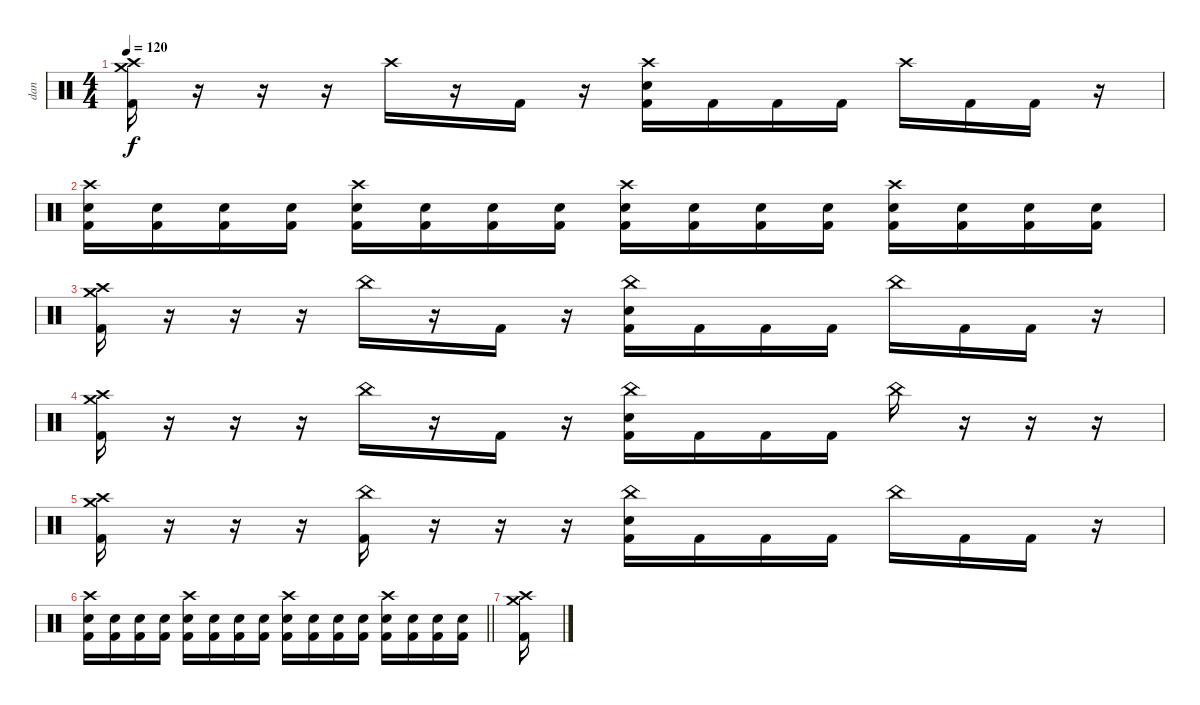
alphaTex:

\track ("dan" "dan") {instrument percussion}
\staff {score}
\articulation defaults
\ts (4 4)
\tempo 120
\clef neutral
\ks c
("Crash high (hit)" "Crash medium (hit)" "Kick (hit) 2").16{dy f} r.16 r.16 r.16 "Crash high (hit)".16 r.16 "Kick (hit) 2".16 r.16 ("Crash high (hit)" "Electric Snare (hit)" "Kick (hit) 2").16 "Kick (hit) 2".16 "Kick (hit) 2".16 "Kick (hit) 2".16 "Crash high (hit)".16 "Kick (hit) 2".16 "Kick (hit) 2".16 r.16 |
("Crash high (hit)" "Electric Snare (hit)" "Kick (hit) 2").16 ("Electric Snare (hit)" "Kick (hit) 2").16 ("Electric Snare (hit)" "Kick (hit) 2").16 ("Electric Snare (hit)" "Kick (hit) 2").16 ("Crash high (hit)" "Electric Snare (hit)" "Kick (hit) 2").16 ("Electric Snare (hit)" "Kick (hit) 2").16 ("Electric Snare (hit)" "Kick (hit) 2").16 ("Electric Snare (hit)" "Kick (hit) 2").16 ("Crash high (hit)" "Electric Snare (hit)" "Kick (hit) 2").16 ("Electric Snare (hit)" "Kick (hit) 2").16 ("Electric Snare (hit)" "Kick (hit) 2").16 ("Electric Snare (hit)" "Kick (hit) 2").16 ("Crash high (hit)" "Electric Snare (hit)" "Kick (hit) 2").16 ("Electric Snare (hit)" "Kick (hit) 2").16 ("Electric Snare (hit)" "Kick (hit) 2").16 ("Electric Snare (hit)" "Kick (hit) 2").16 |
("Crash high (hit)" "Crash medium (hit)" "Kick (hit) 2").16 r.16 r.16 r.16 "China (hit)".16 r.16 "Kick (hit) 2".16 r.16 ("China (hit)" "Electric Snare (hit)" "Kick (hit) 2").16 "Kick (hit) 2".16 "Kick (hit) 2".16 "Kick (hit) 2".16 "China (hit)".16 "Kick (hit) 2".16 "Kick (hit) 2".16 r.16 |
("Crash high (hit)" "Crash medium (hit)" "Kick (hit) 2").16 r.16 r.16 r.16 "China (hit)".16 r.16 "Kick (hit) 2".16 r.16 ("China (hit)" "Electric Snare (hit)" "Kick (hit) 2").16 "Kick (hit) 2".16 "Kick (hit) 2".16 "Kick (hit) 2".16 "China (hit)".16 r.16 r.16 r.16 |
("Crash high (hit)" "Crash medium (hit)" "Kick (hit) 2").16 r.16 r.16 r.16 ("China (hit)" "Kick (hit) 2").16 r.16 r.16 r.16 ("China (hit)" "Electric Snare (hit)" "Kick (hit) 2").16 "Kick (hit) 2".16 "Kick (hit) 2".16 "Kick (hit) 2".16 "China (hit)".16 "Kick (hit) 2".16 "Kick (hit) 2".16 r.16 |
\barLineRight lightlight
("Crash high (hit)" "Electric Snare (hit)" "Kick (hit) 2").16 ("Electric Snare (hit)" "Kick (hit) 2").16 ("Electric Snare (hit)" "Kick (hit) 2").16 ("Electric Snare (hit)" "Kick (hit) 2").16 ("Crash high (hit)" "Electric Snare (hit)" "Kick (hit) 2").16 ("Electric Snare (hit)" "Kick (hit) 2").16 ("Electric Snare (hit)" "Kick (hit) 2").16 ("Electric Snare (hit)" "Kick (hit) 2").16 ("Crash high (hit)" "Electric Snare (hit)" "Kick (hit) 2").16 ("Electric Snare (hit)" "Kick (hit) 2").16 ("Electric Snare (hit)" "Kick (hit) 2").16 ("Electric Snare (hit)" "Kick (hit) 2").16 ("Crash high (hit)" "Electric Snare (hit)" "Kick (hit) 2").16 ("Electric Snare (hit)" "Kick (hit) 2").16 ("Electric Snare (hit)" "Kick (hit) 2").16 ("Electric Snare (hit)" "Kick (hit) 2").16 |
("Crash high (hit)" "Crash medium (hit)" "Kick (hit) 2").16
